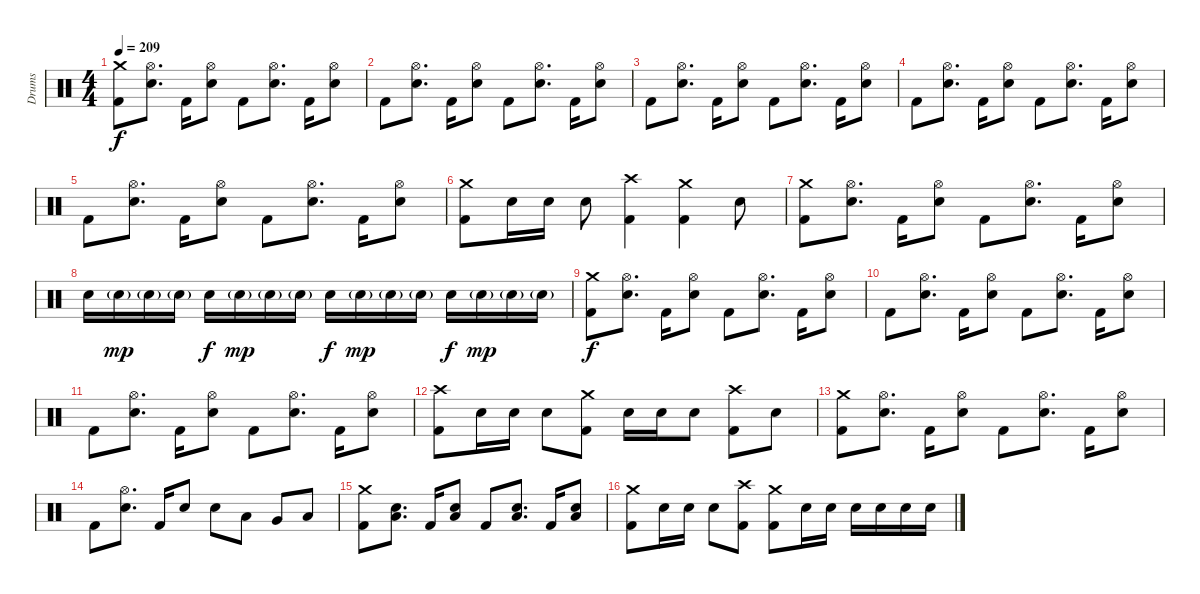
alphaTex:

\track ("Drums" "Drums") {instrument percussion}
\staff {score}
\articulation defaults
\ts (4 4)
\tempo 209
\clef neutral
\ks c
("Crash medium (hit)" "Kick (hit) 2").8{dy f} ("Hi-Hat (open)" "Electric Snare (hit)").8{d} "Kick (hit) 2".16 ("Hi-Hat (open)" "Electric Snare (hit)").8 "Kick (hit) 2".8 ("Hi-Hat (open)" "Electric Snare (hit)").8{d} "Kick (hit) 2".16 ("Hi-Hat (open)" "Electric Snare (hit)").8 |
"Kick (hit) 2".8 ("Hi-Hat (open)" "Electric Snare (hit)").8{d} "Kick (hit) 2".16 ("Hi-Hat (open)" "Electric Snare (hit)").8 "Kick (hit) 2".8 ("Hi-Hat (open)" "Electric Snare (hit)").8{d} "Kick (hit) 2".16 ("Hi-Hat (open)" "Electric Snare (hit)").8 |
"Kick (hit) 2".8 ("Hi-Hat (open)" "Electric Snare (hit)").8{d} "Kick (hit) 2".16 ("Hi-Hat (open)" "Electric Snare (hit)").8 "Kick (hit) 2".8 ("Hi-Hat (open)" "Electric Snare (hit)").8{d} "Kick (hit) 2".16 ("Hi-Hat (open)" "Electric Snare (hit)").8 |
"Kick (hit) 2".8 ("Hi-Hat (open)" "Electric Snare (hit)").8{d} "Kick (hit) 2".16 ("Hi-Hat (open)" "Electric Snare (hit)").8 "Kick (hit) 2".8 ("Hi-Hat (open)" "Electric Snare (hit)").8{d} "Kick (hit) 2".16 ("Hi-Hat (open)" "Electric Snare (hit)").8 |
"Kick (hit) 2".8 ("Hi-Hat (open)" "Electric Snare (hit)").8{d} "Kick (hit) 2".16 ("Hi-Hat (open)" "Electric Snare (hit)").8 "Kick (hit) 2".8 ("Hi-Hat (open)" "Electric Snare (hit)").8{d} "Kick (hit) 2".16 ("Hi-Hat (open)" "Electric Snare (hit)").8 |
("Crash medium (hit)" "Kick (hit) 2").8 "Electric Snare (hit)".16 "Electric Snare (hit)".16 "Electric Snare (hit)".8 ("Crash high (hit)" "Kick (hit) 2").4 ("Crash medium (hit)" "Kick (hit) 2").4 "Electric Snare (hit)".8 |
("Crash medium (hit)" "Kick (hit) 2").8 ("Hi-Hat (open)" "Electric Snare (hit)").8{d} "Kick (hit) 2".16 ("Hi-Hat (open)" "Electric Snare (hit)").8 "Kick (hit) 2".8 ("Hi-Hat (open)" "Electric Snare (hit)").8{d} "Kick (hit) 2".16 ("Hi-Hat (open)" "Electric Snare (hit)").8 |
"Electric Snare (hit)".16 "Electric Snare (hit)"{g}.16{dy mp} "Electric Snare (hit)"{g}.16 "Electric Snare (hit)"{g}.16 "Electric Snare (hit)".16{dy f} "Electric Snare (hit)"{g}.16{dy mp} "Electric Snare (hit)"{g}.16 "Electric Snare (hit)"{g}.16 "Electric Snare (hit)".16{dy f} "Electric Snare (hit)"{g}.16{dy mp} "Electric Snare (hit)"{g}.16 "Electric Snare (hit)"{g}.16 "Electric Snare (hit)".16{dy f} "Electric Snare (hit)"{g}.16{dy mp} "Electric Snare (hit)"{g}.16 "Electric Snare (hit)"{g}.16 |
("Crash medium (hit)" "Kick (hit) 2").8{dy f} ("Hi-Hat (open)" "Electric Snare (hit)").8{d} "Kick (hit) 2".16 ("Hi-Hat (open)" "Electric Snare (hit)").8 "Kick (hit) 2".8 ("Hi-Hat (open)" "Electric Snare (hit)").8{d} "Kick (hit) 2".16 ("Hi-Hat (open)" "Electric Snare (hit)").8 |
"Kick (hit) 2".8 ("Hi-Hat (open)" "Electric Snare (hit)").8{d} "Kick (hit) 2".16 ("Hi-Hat (open)" "Electric Snare (hit)").8 "Kick (hit) 2".8 ("Hi-Hat (open)" "Electric Snare (hit)").8{d} "Kick (hit) 2".16 ("Hi-Hat (open)" "Electric Snare (hit)").8 |
"Kick (hit) 2".8 ("Hi-Hat (open)" "Electric Snare (hit)").8{d} "Kick (hit) 2".16 ("Hi-Hat (open)" "Electric Snare (hit)").8 "Kick (hit) 2".8 ("Hi-Hat (open)" "Electric Snare (hit)").8{d} "Kick (hit) 2".16 ("Hi-Hat (open)" "Electric Snare (hit)").8 |
("Crash high (hit)" "Kick (hit) 2").8 "Electric Snare (hit)".16 "Electric Snare (hit)".16 "Electric Snare (hit)".8 ("Crash medium (hit)" "Kick (hit) 2").8 "Electric Snare (hit)".16 "Electric Snare (hit)".16 "Electric Snare (hit)".8 ("Crash high (hit)" "Kick (hit) 2").8 "Electric Snare (hit)".8 |
("Crash medium (hit)" "Kick (hit) 2").8 ("Hi-Hat (open)" "Electric Snare (hit)").8{d} "Kick (hit) 2".16 ("Hi-Hat (open)" "Electric Snare (hit)").8 "Kick (hit) 2".8 ("Hi-Hat (open)" "Electric Snare (hit)").8{d} "Kick (hit) 2".16 ("Hi-Hat (open)" "Electric Snare (hit)").8 |
"Kick (hit) 2".8 ("Hi-Hat (open)" "Electric Snare (hit)").8{d} "Kick (hit) 2".16 "Electric Snare (hit)".8 "Electric Snare (hit)".8 "Low Tom (hit)".8 "Very Low Tom (hit)".8 "Low Floor Tom (hit)".8 |
("Crash medium (hit)" "Kick (hit) 2").8 ("Low Floor Tom (hit)" "Electric Snare (hit)").8{d} "Kick (hit) 2".16 ("Low Floor Tom (hit)" "Electric Snare (hit)").8 "Kick (hit) 2".8 ("Low Floor Tom (hit)" "Electric Snare (hit)").8{d} "Kick (hit) 2".16 ("Low Floor Tom (hit)" "Electric Snare (hit)").8 |
("Crash medium (hit)" "Kick (hit) 2").8 "Electric Snare (hit)".16 "Electric Snare (hit)".16 "Electric Snare (hit)".8 ("Crash high (hit)" "Kick (hit) 2").8 ("Crash medium (hit)" "Kick (hit) 2").8 "Electric Snare (hit)".16 "Electric Snare (hit)".16 "Electric Snare (hit)".16 "Electric Snare (hit)".16 "Electric Snare (hit)".16 "Electric Snare (hit)".16
